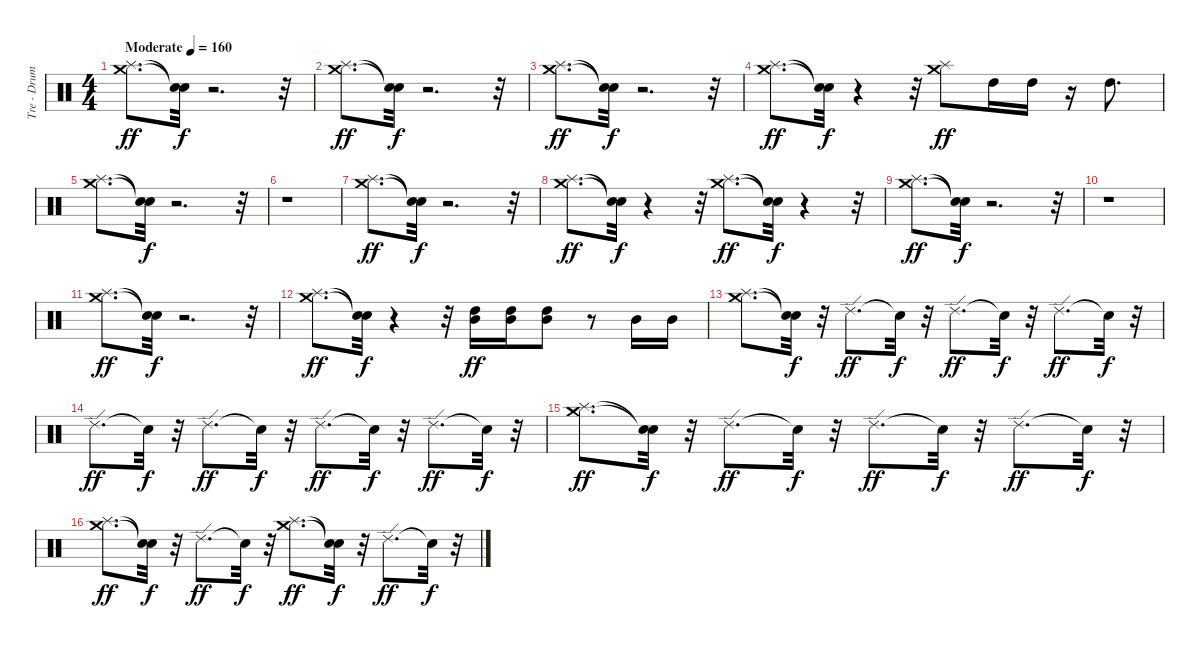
\track ("Tre - Drums" "Tre - Drum") {instrument percussion}
\staff {score}
\articulation defaults
\ts (4 4)
\tempo (160 "Moderate")
\clef neutral
\ks c
("Splash (hit)" "Crash medium (hit)").8{d dy ff} ("Snare (hit)"{t} "Snare (hit)"{t}).32{dy f} r.2{d} r.32 |
("Splash (hit)" "Crash medium (hit)").8{d dy ff} ("Snare (hit)"{t} "Snare (hit)"{t}).32{dy f} r.2{d} r.32 |
("Splash (hit)" "Crash medium (hit)").8{d dy ff} ("Snare (hit)"{t} "Snare (hit)"{t}).32{dy f} r.2{d} r.32 |
("Splash (hit)" "Crash medium (hit)").8{d dy ff} ("Snare (hit)"{t} "Snare (hit)"{t}).32{dy f} r.4 r.32 ("Splash (hit)" "Crash medium (hit)").8{dy ff} "High Tom (hit)".16 "High Tom (hit)".16 r.16 "High Tom (hit)".8{d} |
("Splash (hit)" "Crash medium (hit)").8{d} ("Snare (hit)"{t} "Snare (hit)"{t}).32{dy f} r.2{d} r.32 |
r.1 |
("Splash (hit)" "Crash medium (hit)").8{d dy ff} ("Snare (hit)"{t} "Snare (hit)"{t}).32{dy f} r.2{d} r.32 |
("Splash (hit)" "Crash medium (hit)").8{d dy ff} ("Snare (hit)"{t} "Snare (hit)"{t}).32{dy f} r.4 r.32 ("Splash (hit)" "Crash medium (hit)").8{d dy ff} ("Snare (hit)"{t} "Snare (hit)"{t}).32{dy f} r.4 r.32 |
("Splash (hit)" "Crash medium (hit)").8{d dy ff} ("Snare (hit)"{t} "Snare (hit)"{t}).32{dy f} r.2{d} r.32 |
r.1 |
("Splash (hit)" "Crash medium (hit)").8{d dy ff} ("Snare (hit)"{t} "Snare (hit)"{t}).32{dy f} r.2{d} r.32 |
("Splash (hit)" "Crash medium (hit)").8{d dy ff} ("Snare (hit)"{t} "Snare (hit)"{t}).32{dy f} r.4 r.32 ("Mid Tom (hit)" "High Tom (hit)").16{dy ff} ("Mid Tom (hit)" "High Tom (hit)").16 ("Mid Tom (hit)" "High Tom (hit)").8 r.8 "Mid Tom (hit)".16 "Mid Tom (hit)".16 |
("Splash (hit)" "Crash medium (hit)").8{d} ("Snare (hit)"{t} "Snare (hit)"{t}).32{dy f} r.32 "Ride (edge) 2".8{d dy ff} "Snare (hit)"{t}.32{dy f} r.32 "Ride (edge) 2".8{d dy ff} "Snare (hit)"{t}.32{dy f} r.32 "Ride (edge) 2".8{d dy ff} "Snare (hit)"{t}.32{dy f} r.32 |
"Ride (edge) 2".8{d dy ff} "Snare (hit)"{t}.32{dy f} r.32 "Ride (edge) 2".8{d dy ff} "Snare (hit)"{t}.32{dy f} r.32 "Ride (edge) 2".8{d dy ff} "Snare (hit)"{t}.32{dy f} r.32 "Ride (edge) 2".8{d dy ff} "Snare (hit)"{t}.32{dy f} r.32 |
("Splash (hit)" "Crash medium (hit)").8{d dy ff} ("Snare (hit)"{t} "Snare (hit)"{t}).32{dy f} r.32 "Ride (edge) 2".8{d dy ff} "Snare (hit)"{t}.32{dy f} r.32 "Ride (edge) 2".8{d dy ff} "Snare (hit)"{t}.32{dy f} r.32 "Ride (edge) 2".8{d dy ff} "Snare (hit)"{t}.32{dy f} r.32 |
("Splash (hit)" "Crash medium (hit)").8{d dy ff} ("Snare (hit)"{t} "Snare (hit)"{t}).32{dy f} r.32 "Ride (edge) 2".8{d dy ff} "Snare (hit)"{t}.32{dy f} r.32 ("Splash (hit)" "Crash medium (hit)").8{d dy ff} ("Snare (hit)"{t} "Snare (hit)"{t}).32{dy f} r.32 "Ride (edge) 2".8{d dy ff} "Snare (hit)"{t}.32{dy f} r.32
